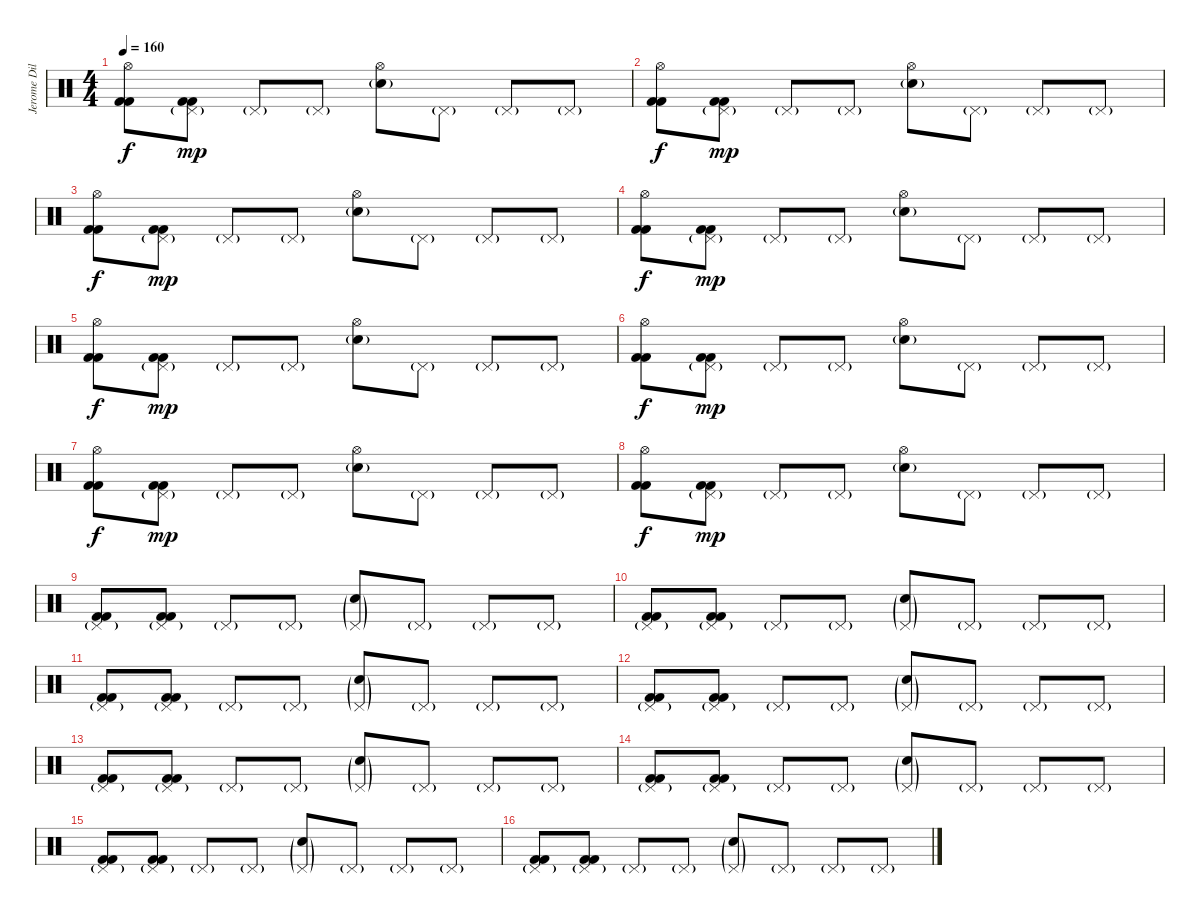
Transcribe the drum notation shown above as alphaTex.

\track ("Jerome Dillon" "Jerome Dil") {instrument percussion}
\staff {score}
\articulation defaults
\ts (4 4)
\tempo 160
\clef neutral
\ks c
("Hi-Hat (open)" "Kick (hit) 2" "Kick (hit) 2").8{dy f} ("Pedal Hi-Hat (hit)"{g} "Kick (hit) 2" "Kick (hit) 2").8{dy mp} "Pedal Hi-Hat (hit)"{g}.8 "Pedal Hi-Hat (hit)"{g}.8 ("Hi-Hat (open)" "Electric Snare (hit)"{g}).8 "Pedal Hi-Hat (hit)"{g}.8 "Pedal Hi-Hat (hit)"{g}.8 "Pedal Hi-Hat (hit)"{g}.8 |
("Hi-Hat (open)" "Kick (hit) 2" "Kick (hit) 2").8{dy f} ("Pedal Hi-Hat (hit)"{g} "Kick (hit) 2" "Kick (hit) 2").8{dy mp} "Pedal Hi-Hat (hit)"{g}.8 "Pedal Hi-Hat (hit)"{g}.8 ("Hi-Hat (open)" "Electric Snare (hit)"{g}).8 "Pedal Hi-Hat (hit)"{g}.8 "Pedal Hi-Hat (hit)"{g}.8 "Pedal Hi-Hat (hit)"{g}.8 |
("Hi-Hat (open)" "Kick (hit) 2" "Kick (hit) 2").8{dy f} ("Pedal Hi-Hat (hit)"{g} "Kick (hit) 2" "Kick (hit) 2").8{dy mp} "Pedal Hi-Hat (hit)"{g}.8 "Pedal Hi-Hat (hit)"{g}.8 ("Hi-Hat (open)" "Electric Snare (hit)"{g}).8 "Pedal Hi-Hat (hit)"{g}.8 "Pedal Hi-Hat (hit)"{g}.8 "Pedal Hi-Hat (hit)"{g}.8 |
("Hi-Hat (open)" "Kick (hit) 2" "Kick (hit) 2").8{dy f} ("Pedal Hi-Hat (hit)"{g} "Kick (hit) 2" "Kick (hit) 2").8{dy mp} "Pedal Hi-Hat (hit)"{g}.8 "Pedal Hi-Hat (hit)"{g}.8 ("Hi-Hat (open)" "Electric Snare (hit)"{g}).8 "Pedal Hi-Hat (hit)"{g}.8 "Pedal Hi-Hat (hit)"{g}.8 "Pedal Hi-Hat (hit)"{g}.8 |
("Hi-Hat (open)" "Kick (hit) 2" "Kick (hit) 2").8{dy f} ("Pedal Hi-Hat (hit)"{g} "Kick (hit) 2" "Kick (hit) 2").8{dy mp} "Pedal Hi-Hat (hit)"{g}.8 "Pedal Hi-Hat (hit)"{g}.8 ("Hi-Hat (open)" "Electric Snare (hit)"{g}).8 "Pedal Hi-Hat (hit)"{g}.8 "Pedal Hi-Hat (hit)"{g}.8 "Pedal Hi-Hat (hit)"{g}.8 |
("Hi-Hat (open)" "Kick (hit) 2" "Kick (hit) 2").8{dy f} ("Pedal Hi-Hat (hit)"{g} "Kick (hit) 2" "Kick (hit) 2").8{dy mp} "Pedal Hi-Hat (hit)"{g}.8 "Pedal Hi-Hat (hit)"{g}.8 ("Hi-Hat (open)" "Electric Snare (hit)"{g}).8 "Pedal Hi-Hat (hit)"{g}.8 "Pedal Hi-Hat (hit)"{g}.8 "Pedal Hi-Hat (hit)"{g}.8 |
("Hi-Hat (open)" "Kick (hit) 2" "Kick (hit) 2").8{dy f} ("Pedal Hi-Hat (hit)"{g} "Kick (hit) 2" "Kick (hit) 2").8{dy mp} "Pedal Hi-Hat (hit)"{g}.8 "Pedal Hi-Hat (hit)"{g}.8 ("Hi-Hat (open)" "Electric Snare (hit)"{g}).8 "Pedal Hi-Hat (hit)"{g}.8 "Pedal Hi-Hat (hit)"{g}.8 "Pedal Hi-Hat (hit)"{g}.8 |
("Hi-Hat (open)" "Kick (hit) 2" "Kick (hit) 2").8{dy f} ("Pedal Hi-Hat (hit)"{g} "Kick (hit) 2" "Kick (hit) 2").8{dy mp} "Pedal Hi-Hat (hit)"{g}.8 "Pedal Hi-Hat (hit)"{g}.8 ("Hi-Hat (open)" "Electric Snare (hit)"{g}).8 "Pedal Hi-Hat (hit)"{g}.8 "Pedal Hi-Hat (hit)"{g}.8 "Pedal Hi-Hat (hit)"{g}.8 |
("Pedal Hi-Hat (hit)"{g} "Kick (hit) 2" "Kick (hit) 2").8 ("Pedal Hi-Hat (hit)"{g} "Kick (hit) 2" "Kick (hit) 2").8 "Pedal Hi-Hat (hit)"{g}.8 "Pedal Hi-Hat (hit)"{g}.8 ("Pedal Hi-Hat (hit)"{g} "Electric Snare (hit)"{g}).8 "Pedal Hi-Hat (hit)"{g}.8 "Pedal Hi-Hat (hit)"{g}.8 "Pedal Hi-Hat (hit)"{g}.8 |
("Pedal Hi-Hat (hit)"{g} "Kick (hit) 2" "Kick (hit) 2").8 ("Pedal Hi-Hat (hit)"{g} "Kick (hit) 2" "Kick (hit) 2").8 "Pedal Hi-Hat (hit)"{g}.8 "Pedal Hi-Hat (hit)"{g}.8 ("Pedal Hi-Hat (hit)"{g} "Electric Snare (hit)"{g}).8 "Pedal Hi-Hat (hit)"{g}.8 "Pedal Hi-Hat (hit)"{g}.8 "Pedal Hi-Hat (hit)"{g}.8 |
("Pedal Hi-Hat (hit)"{g} "Kick (hit) 2" "Kick (hit) 2").8 ("Pedal Hi-Hat (hit)"{g} "Kick (hit) 2" "Kick (hit) 2").8 "Pedal Hi-Hat (hit)"{g}.8 "Pedal Hi-Hat (hit)"{g}.8 ("Pedal Hi-Hat (hit)"{g} "Electric Snare (hit)"{g}).8 "Pedal Hi-Hat (hit)"{g}.8 "Pedal Hi-Hat (hit)"{g}.8 "Pedal Hi-Hat (hit)"{g}.8 |
("Pedal Hi-Hat (hit)"{g} "Kick (hit) 2" "Kick (hit) 2").8 ("Pedal Hi-Hat (hit)"{g} "Kick (hit) 2" "Kick (hit) 2").8 "Pedal Hi-Hat (hit)"{g}.8 "Pedal Hi-Hat (hit)"{g}.8 ("Pedal Hi-Hat (hit)"{g} "Electric Snare (hit)"{g}).8 "Pedal Hi-Hat (hit)"{g}.8 "Pedal Hi-Hat (hit)"{g}.8 "Pedal Hi-Hat (hit)"{g}.8 |
("Pedal Hi-Hat (hit)"{g} "Kick (hit) 2" "Kick (hit) 2").8 ("Pedal Hi-Hat (hit)"{g} "Kick (hit) 2" "Kick (hit) 2").8 "Pedal Hi-Hat (hit)"{g}.8 "Pedal Hi-Hat (hit)"{g}.8 ("Pedal Hi-Hat (hit)"{g} "Electric Snare (hit)"{g}).8 "Pedal Hi-Hat (hit)"{g}.8 "Pedal Hi-Hat (hit)"{g}.8 "Pedal Hi-Hat (hit)"{g}.8 |
("Pedal Hi-Hat (hit)"{g} "Kick (hit) 2" "Kick (hit) 2").8 ("Pedal Hi-Hat (hit)"{g} "Kick (hit) 2" "Kick (hit) 2").8 "Pedal Hi-Hat (hit)"{g}.8 "Pedal Hi-Hat (hit)"{g}.8 ("Pedal Hi-Hat (hit)"{g} "Electric Snare (hit)"{g}).8 "Pedal Hi-Hat (hit)"{g}.8 "Pedal Hi-Hat (hit)"{g}.8 "Pedal Hi-Hat (hit)"{g}.8 |
("Pedal Hi-Hat (hit)"{g} "Kick (hit) 2" "Kick (hit) 2").8 ("Pedal Hi-Hat (hit)"{g} "Kick (hit) 2" "Kick (hit) 2").8 "Pedal Hi-Hat (hit)"{g}.8 "Pedal Hi-Hat (hit)"{g}.8 ("Pedal Hi-Hat (hit)"{g} "Electric Snare (hit)"{g}).8 "Pedal Hi-Hat (hit)"{g}.8 "Pedal Hi-Hat (hit)"{g}.8 "Pedal Hi-Hat (hit)"{g}.8 |
("Pedal Hi-Hat (hit)"{g} "Kick (hit) 2" "Kick (hit) 2").8 ("Pedal Hi-Hat (hit)"{g} "Kick (hit) 2" "Kick (hit) 2").8 "Pedal Hi-Hat (hit)"{g}.8 "Pedal Hi-Hat (hit)"{g}.8 ("Pedal Hi-Hat (hit)"{g} "Electric Snare (hit)"{g}).8 "Pedal Hi-Hat (hit)"{g}.8 "Pedal Hi-Hat (hit)"{g}.8 "Pedal Hi-Hat (hit)"{g}.8
